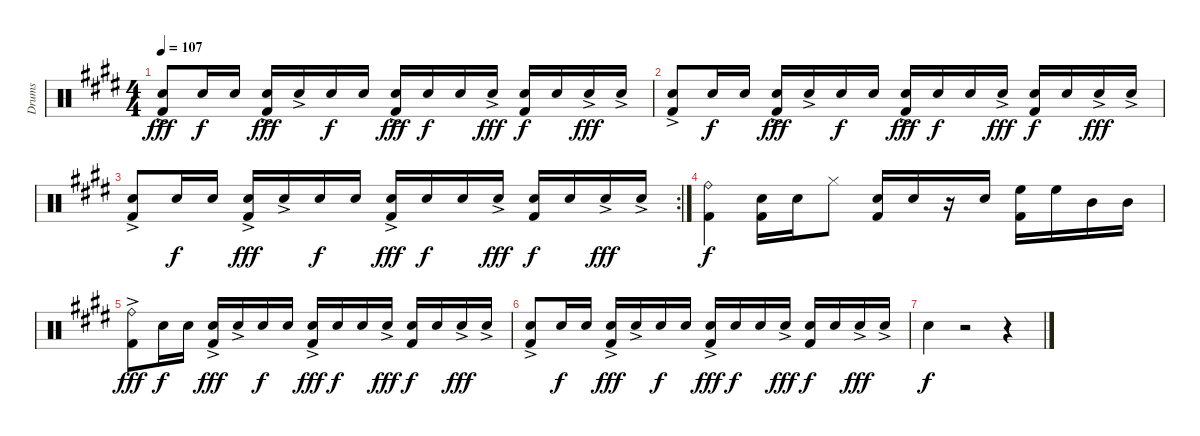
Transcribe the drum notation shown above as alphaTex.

\track ("Drums" "Drums") {instrument percussion}
\staff {score}
\articulation defaults
\ts (4 4)
\tempo 107
\clef neutral
\ks c#minor
("Electric Snare (hit)"{ac} "Kick (hit) 2").8{dy fff} "Electric Snare (hit)".16{dy f} "Electric Snare (hit)".16 ("Electric Snare (hit)"{ac} "Kick (hit) 2").16{dy fff} "Electric Snare (hit)"{ac}.16 "Electric Snare (hit)".16{dy f} "Electric Snare (hit)".16 ("Electric Snare (hit)"{ac} "Kick (hit) 2").16{dy fff} "Electric Snare (hit)".16{dy f} "Electric Snare (hit)".16 "Electric Snare (hit)"{ac}.16{dy fff} ("Electric Snare (hit)" "Kick (hit) 2").16{dy f} "Electric Snare (hit)".16 "Electric Snare (hit)"{ac}.16{dy fff} "Electric Snare (hit)"{ac}.16 |
("Electric Snare (hit)"{ac} "Kick (hit) 2").8 "Electric Snare (hit)".16{dy f} "Electric Snare (hit)".16 ("Electric Snare (hit)"{ac} "Kick (hit) 2").16{dy fff} "Electric Snare (hit)"{ac}.16 "Electric Snare (hit)".16{dy f} "Electric Snare (hit)".16 ("Electric Snare (hit)"{ac} "Kick (hit) 2").16{dy fff} "Electric Snare (hit)".16{dy f} "Electric Snare (hit)".16 "Electric Snare (hit)"{ac}.16{dy fff} ("Electric Snare (hit)" "Kick (hit) 2").16{dy f} "Electric Snare (hit)".16 "Electric Snare (hit)"{ac}.16{dy fff} "Electric Snare (hit)"{ac}.16 |
\rc 2
("Electric Snare (hit)"{ac} "Kick (hit) 2").8 "Electric Snare (hit)".16{dy f} "Electric Snare (hit)".16 ("Electric Snare (hit)"{ac} "Kick (hit) 2").16{dy fff} "Electric Snare (hit)"{ac}.16 "Electric Snare (hit)".16{dy f} "Electric Snare (hit)".16 ("Electric Snare (hit)"{ac} "Kick (hit) 2").16{dy fff} "Electric Snare (hit)".16{dy f} "Electric Snare (hit)".16 "Electric Snare (hit)"{ac}.16{dy fff} ("Electric Snare (hit)" "Kick (hit) 2").16{dy f} "Electric Snare (hit)".16 "Electric Snare (hit)"{ac}.16{dy fff} "Electric Snare (hit)"{ac}.16 |
("Ride (bell)" "Kick (hit) 2").4{dy f} ("Electric Snare (hit)" "Kick (hit) 2").16 "Electric Snare (hit)".16 "Hi-Hat (closed)".8 ("Electric Snare (hit)" "Kick (hit) 2").16 "Electric Snare (hit)".16 r.16 "Electric Snare (hit)".16 ("High Floor Tom (hit)" "Kick (hit) 2").16 "High Floor Tom (hit)".16 "Mid Tom (hit)".16 "Mid Tom (hit)".16 |
("Ride (bell)"{ac} "Kick (hit) 2").8{dy fff} "Electric Snare (hit)".16{dy f} "Electric Snare (hit)".16 ("Electric Snare (hit)"{ac} "Kick (hit) 2").16{dy fff} "Electric Snare (hit)"{ac}.16 "Electric Snare (hit)".16{dy f} "Electric Snare (hit)".16 ("Electric Snare (hit)"{ac} "Kick (hit) 2").16{dy fff} "Electric Snare (hit)".16{dy f} "Electric Snare (hit)".16 "Electric Snare (hit)"{ac}.16{dy fff} ("Electric Snare (hit)" "Kick (hit) 2").16{dy f} "Electric Snare (hit)".16 "Electric Snare (hit)"{ac}.16{dy fff} "Electric Snare (hit)"{ac}.16 |
("Electric Snare (hit)"{ac} "Kick (hit) 2").8 "Electric Snare (hit)".16{dy f} "Electric Snare (hit)".16 ("Electric Snare (hit)"{ac} "Kick (hit) 2").16{dy fff} "Electric Snare (hit)"{ac}.16 "Electric Snare (hit)".16{dy f} "Electric Snare (hit)".16 ("Electric Snare (hit)"{ac} "Kick (hit) 2").16{dy fff} "Electric Snare (hit)".16{dy f} "Electric Snare (hit)".16 "Electric Snare (hit)"{ac}.16{dy fff} ("Electric Snare (hit)" "Kick (hit) 2").16{dy f} "Electric Snare (hit)".16 "Electric Snare (hit)"{ac}.16{dy fff} "Electric Snare (hit)"{ac}.16 |
"Electric Snare (hit)".4{dy f} r.2 r.4
